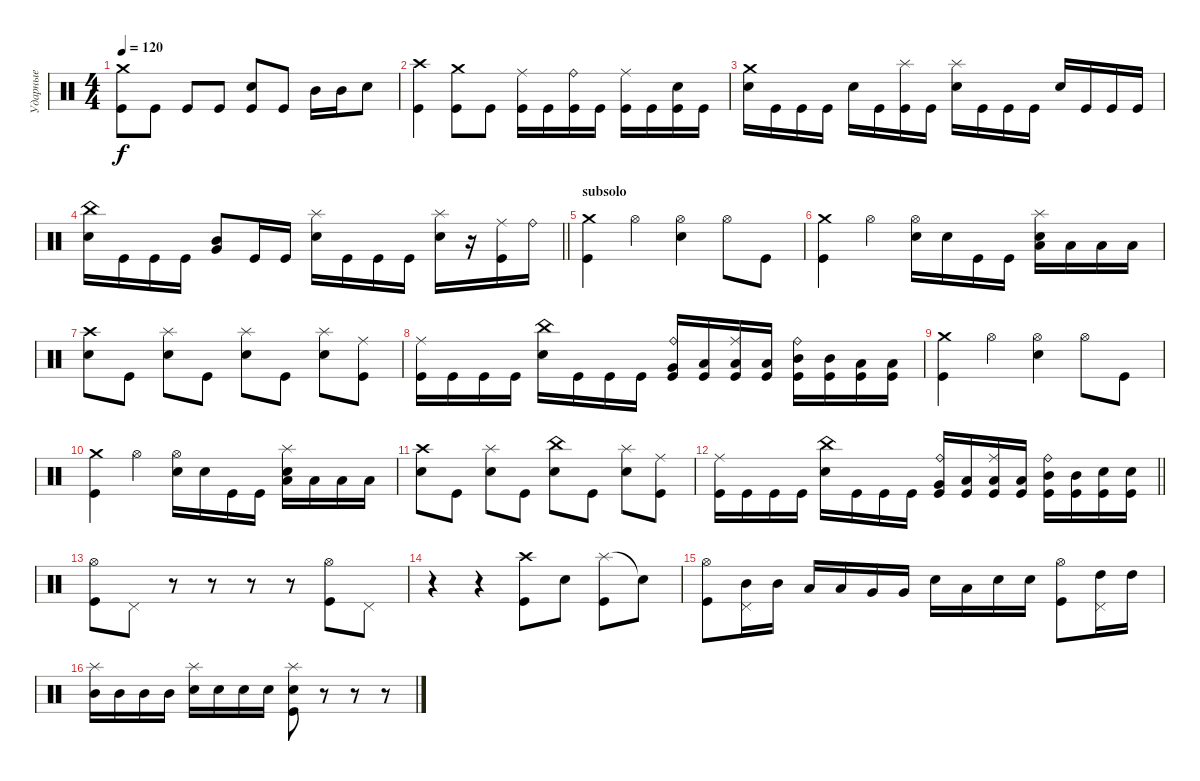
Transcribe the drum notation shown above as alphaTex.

\track ("Ударные" "Ударные") {instrument percussion}
\staff {score}
\articulation defaults
\ts (4 4)
\tempo 120
\clef neutral
\ks c
("Kick (hit)" "Crash medium (hit)").8{dy f} "Kick (hit)".8 "Kick (hit)".8 "Kick (hit)".8 ("Kick (hit)" "Electric Snare (hit)").8 "Kick (hit)".8 "Mid Tom (hit)".16 "Mid Tom (hit)".16 "Electric Snare (hit)".8 |
("Crash high (hit)" "Kick (hit)").4 ("Kick (hit)" "Crash medium (hit)").8 "Kick (hit)".8 ("Kick (hit)" "Ride (middle)").16 "Kick (hit)".16 ("Kick (hit)" "Ride (bell)").16 "Kick (hit)".16 ("Kick (hit)" "Ride (middle)").16 "Kick (hit)".16 ("Kick (hit)" "Electric Snare (hit)").16 "Kick (hit)".16 |
("Crash medium (hit)" "Electric Snare (hit)").16 "Kick (hit)".16 "Kick (hit)".16 "Kick (hit)".16 "Electric Snare (hit)".16 "Kick (hit)".16 ("Splash (hit)" "Kick (hit)").16 "Kick (hit)".16 ("Splash (hit)" "Electric Snare (hit)").16 "Kick (hit)".16 "Kick (hit)".16 "Kick (hit)".16 "Electric Snare (hit)".16 "Kick (hit)".16 "Kick (hit)".16 "Kick (hit)".16 |
\barLineRight lightlight
("China (hit)" "Electric Snare (hit)").16 "Kick (hit)".16 "Kick (hit)".16 "Kick (hit)".16 ("Mid Tom (hit)" "Very Low Tom (hit)").8 "Kick (hit)".16 "Kick (hit)".16 ("Splash (hit)" "Electric Snare (hit)").16 "Kick (hit)".16 "Kick (hit)".16 "Kick (hit)".16 ("Splash (hit)" "Electric Snare (hit)").16 r.16 ("Ride (middle)" "Kick (hit)").16 "Ride (bell)".16 |
\section ("" "subsolo")
("Crash medium (hit)" "Kick (hit)").4 "Hi-Hat (open)".4 ("Hi-Hat (open)" "Electric Snare (hit)").4 "Hi-Hat (open)".8 "Kick (hit)".8 |
("Crash medium (hit)" "Kick (hit)").4 "Hi-Hat (open)".4 ("Hi-Hat (open)" "Electric Snare (hit)").16 "Electric Snare (hit)".16 "Kick (hit)".16 "Kick (hit)".16 ("Splash (hit)" "Electric Snare (hit)" "Low Tom (hit)").16 "Low Tom (hit)".16 "Low Tom (hit)".16 "Low Tom (hit)".16 |
("Crash high (hit)" "Electric Snare (hit)").8 "Kick (hit)".8 ("Splash (hit)" "Electric Snare (hit)").8 "Kick (hit)".8 ("Splash (hit)" "Electric Snare (hit)").8 "Kick (hit)".8 ("Splash (hit)" "Electric Snare (hit)").8 ("Ride (middle)" "Kick (hit)").8 |
("Ride (middle)" "Kick (hit)").16 "Kick (hit)".16 "Kick (hit)".16 "Kick (hit)".16 ("China (hit)" "Electric Snare (hit)").16 "Kick (hit)".16 "Kick (hit)".16 "Kick (hit)".16 ("Ride (bell)" "Kick (hit)" "Very Low Tom (hit)").16 ("Kick (hit)" "Low Tom (hit)").16 ("Ride (middle)" "Kick (hit)" "Low Tom (hit)").16 ("Kick (hit)" "Low Tom (hit)").16 ("Ride (bell)" "Kick (hit)" "Mid Tom (hit)").16 ("Kick (hit)" "Mid Tom (hit)").16 ("Kick (hit)" "Low Tom (hit)").16 ("Kick (hit)" "Low Tom (hit)").16 |
("Crash medium (hit)" "Kick (hit)").4 "Hi-Hat (open)".4 ("Hi-Hat (open)" "Electric Snare (hit)").4 "Hi-Hat (open)".8 "Kick (hit)".8 |
("Crash medium (hit)" "Kick (hit)").4 "Hi-Hat (open)".4 ("Hi-Hat (open)" "Electric Snare (hit)").16 "Electric Snare (hit)".16 "Kick (hit)".16 "Kick (hit)".16 ("Splash (hit)" "Electric Snare (hit)" "Low Tom (hit)").16 "Low Tom (hit)".16 "Low Tom (hit)".16 "Low Tom (hit)".16 |
("Crash high (hit)" "Electric Snare (hit)").8 "Kick (hit)".8 ("Splash (hit)" "Electric Snare (hit)").8 "Kick (hit)".8 ("China (hit)" "Electric Snare (hit)").8 "Kick (hit)".8 ("Splash (hit)" "Electric Snare (hit)").8 ("Ride (middle)" "Kick (hit)").8 |
\barLineRight lightlight
("Ride (middle)" "Kick (hit)").16 "Kick (hit)".16 "Kick (hit)".16 "Kick (hit)".16 ("China (hit)" "Electric Snare (hit)").16 "Kick (hit)".16 "Kick (hit)".16 "Kick (hit)".16 ("Ride (bell)" "Kick (hit)" "Very Low Tom (hit)").16 ("Kick (hit)" "Low Tom (hit)").16 ("Ride (middle)" "Kick (hit)" "Low Tom (hit)").16 ("Kick (hit)" "Low Tom (hit)").16 ("Ride (bell)" "Kick (hit)" "Mid Tom (hit)").16 ("Kick (hit)" "Mid Tom (hit)").16 ("Kick (hit)" "Electric Snare (hit)").16 ("Kick (hit)" "Electric Snare (hit)").16 |
\section ("" " ")
("Hi-Hat (open)" "Kick (hit)").8 "Pedal Hi-Hat (hit)".8 r.8 r.8 r.8 r.8 ("Hi-Hat (open)" "Kick (hit)").8 "Pedal Hi-Hat (hit)".8 |
r.4 r.4 ("Crash high (hit)" "Kick (hit)").8 "Electric Snare (hit)".8 ("Splash (hit)" "Kick (hit)").8 "Snare (hit)"{t}.8 |
("Hi-Hat (open)" "Kick (hit)").8 ("Pedal Hi-Hat (hit)" "Mid Tom (hit)").16 "Mid Tom (hit)".16 "Low Tom (hit)".16 "Low Tom (hit)".16 "Very Low Tom (hit)".16 "Very Low Tom (hit)".16 "Electric Snare (hit)".16 "Low Floor Tom (hit)".16 "Electric Snare (hit)".16 "Electric Snare (hit)".16 ("Hi-Hat (open)" "Kick (hit)").8 ("Pedal Hi-Hat (hit)" "High Tom (hit)").16 "High Tom (hit)".16 |
("Splash (hit)" "Mid Tom (hit)").16 "Mid Tom (hit)".16 "Mid Tom (hit)".16 "Mid Tom (hit)".16 ("Splash (hit)" "Electric Snare (hit)").16 "Electric Snare (hit)".16 "Electric Snare (hit)".16 "Electric Snare (hit)".16 ("Electric Snare (hit)" "Splash (hit)" "Kick (hit)").8 r.8 r.8 r.8
